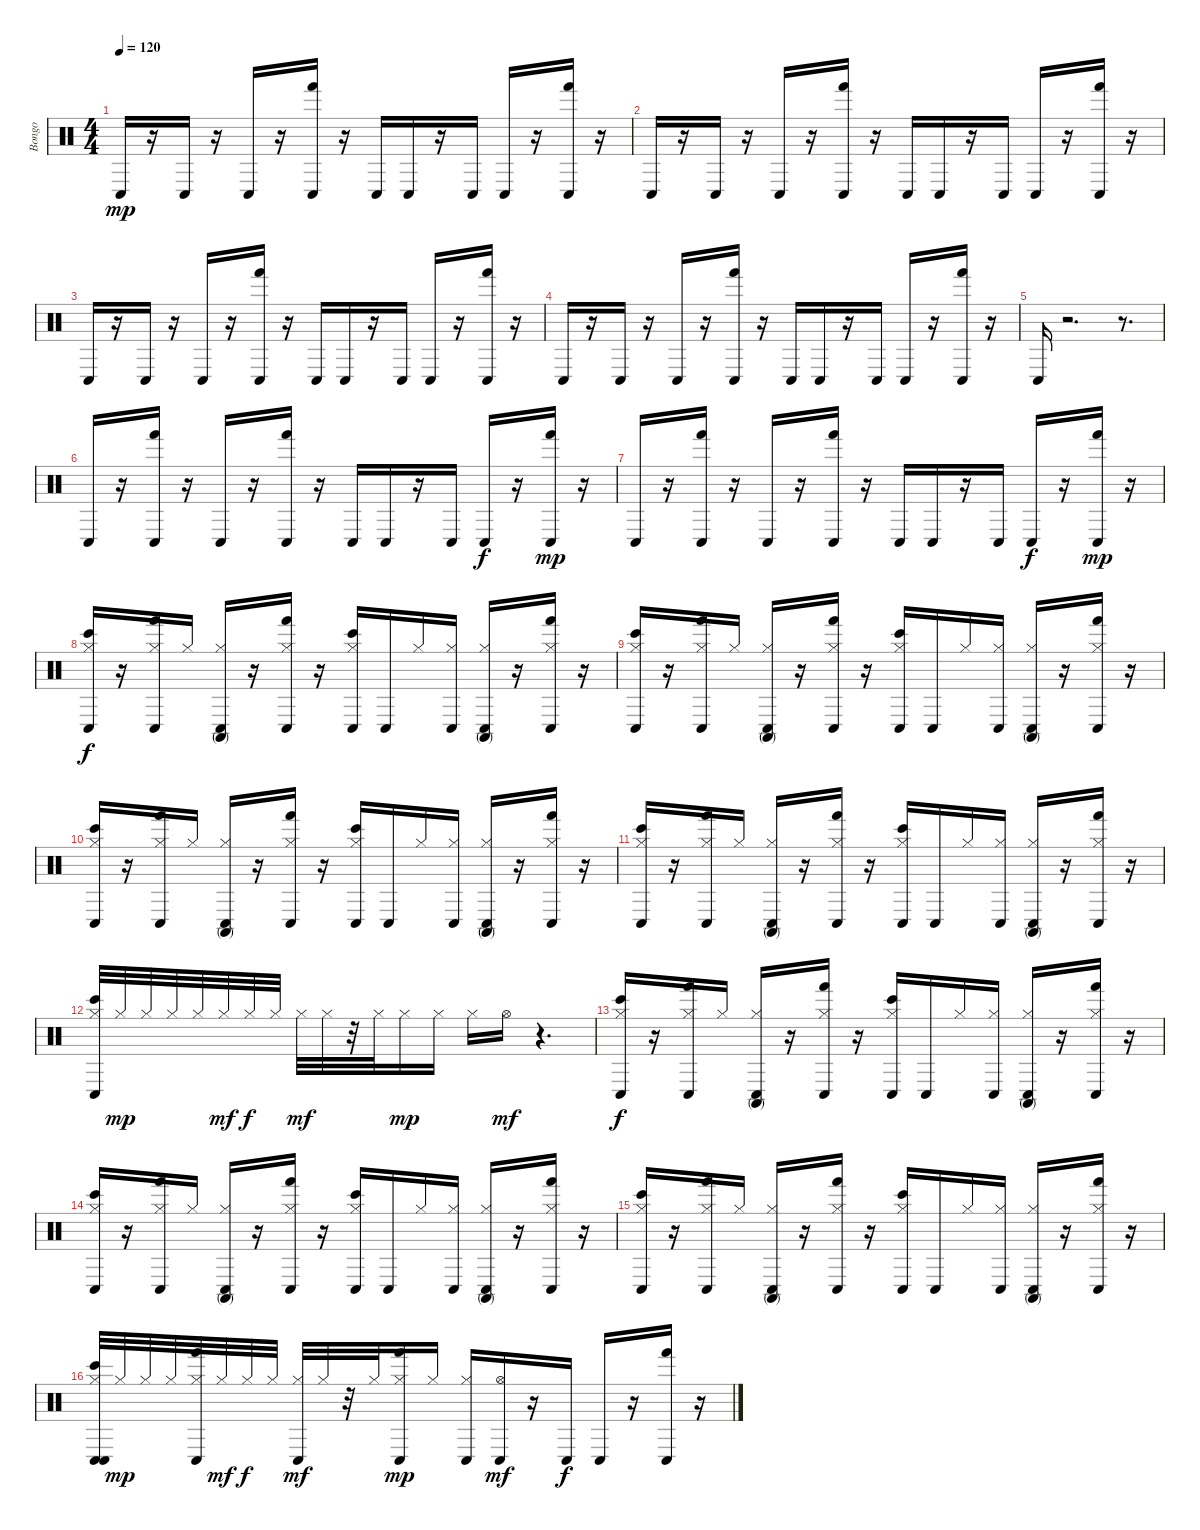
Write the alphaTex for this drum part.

\track ("Bongo" "Bongo") {instrument percussion}
\staff {score}
\articulation defaults
\ts (4 4)
\tempo 120
\clef neutral
\ks c "Conga low (hit)".16{dy mp}
r.16 "Conga low (hit)".16 r.16 "Conga low (hit)".16 r.16 ("Conga low (hit)" "Hand (hit)").16 r.16 "Conga low (hit)".16 "Conga low (hit)".16 r.16 "Conga low (hit)".16 "Conga low (hit)".16 r.16 ("Conga low (hit)" "Hand (hit)").16 r.16 |
"Conga low (hit)".16 r.16 "Conga low (hit)".16 r.16 "Conga low (hit)".16 r.16 ("Conga low (hit)" "Hand (hit)").16 r.16 "Conga low (hit)".16 "Conga low (hit)".16 r.16 "Conga low (hit)".16 "Conga low (hit)".16 r.16 ("Conga low (hit)" "Hand (hit)").16 r.16 |
"Conga low (hit)".16 r.16 "Conga low (hit)".16 r.16 "Conga low (hit)".16 r.16 ("Conga low (hit)" "Hand (hit)").16 r.16 "Conga low (hit)".16 "Conga low (hit)".16 r.16 "Conga low (hit)".16 "Conga low (hit)".16 r.16 ("Conga low (hit)" "Hand (hit)").16 r.16 |
"Conga low (hit)".16 r.16 "Conga low (hit)".16 r.16 "Conga low (hit)".16 r.16 ("Conga low (hit)" "Hand (hit)").16 r.16 "Conga low (hit)".16 "Conga low (hit)".16 r.16 "Conga low (hit)".16 "Conga low (hit)".16 r.16 ("Conga low (hit)" "Hand (hit)").16 r.16 |
"Conga low (hit)".16 r.2{d} r.8{d} |
"Conga low (hit)".16 r.16 ("Hand (hit)" "Conga low (hit)").16 r.16 "Conga low (hit)".16 r.16 ("Conga low (hit)" "Hand (hit)").16 r.16 "Conga low (hit)".16 "Conga low (hit)".16 r.16 "Conga low (hit)".16 "Conga low (hit)".16{dy f} r.16 ("Conga low (hit)" "Hand (hit)").16{dy mp} r.16 |
"Conga low (hit)".16 r.16 ("Hand (hit)" "Conga low (hit)").16 r.16 "Conga low (hit)".16 r.16 ("Conga low (hit)" "Hand (hit)").16 r.16 "Conga low (hit)".16 "Conga low (hit)".16 r.16 "Conga low (hit)".16 "Conga low (hit)".16{dy f} r.16 ("Conga low (hit)" "Hand (hit)").16{dy mp} r.16 |
("Hi-Hat (closed)" "Bongo High (hit)" "Conga low (hit)").16{dy f} r.16 ("Hi-Hat (closed)" "Hand (hit)" "Conga low (hit)").16 "Hi-Hat (closed)".16 ("Hi-Hat (closed)" "Conga high (mute)" "Conga low (hit)").16 r.16 ("Hi-Hat (closed)" "Hand (hit)" "Conga low (hit)").16 r.16 ("Hi-Hat (closed)" "Bongo High (hit)" "Conga low (hit)").16 "Conga low (hit)".16 "Hi-Hat (closed)".16 ("Hi-Hat (closed)" "Conga low (hit)").16 ("Hi-Hat (closed)" "Conga high (mute)" "Conga low (hit)").16 r.16 ("Hi-Hat (closed)" "Conga low (hit)" "Hand (hit)").16 r.16 |
("Hi-Hat (closed)" "Bongo High (hit)" "Conga low (hit)").16 r.16 ("Hi-Hat (closed)" "Hand (hit)" "Conga low (hit)").16 "Hi-Hat (closed)".16 ("Hi-Hat (closed)" "Conga high (mute)" "Conga low (hit)").16 r.16 ("Hi-Hat (closed)" "Hand (hit)" "Conga low (hit)").16 r.16 ("Hi-Hat (closed)" "Bongo High (hit)" "Conga low (hit)").16 "Conga low (hit)".16 "Hi-Hat (closed)".16 ("Hi-Hat (closed)" "Conga low (hit)").16 ("Hi-Hat (closed)" "Conga high (mute)" "Conga low (hit)").16 r.16 ("Hi-Hat (closed)" "Conga low (hit)" "Hand (hit)").16 r.16 |
("Hi-Hat (closed)" "Bongo High (hit)" "Conga low (hit)").16 r.16 ("Hi-Hat (closed)" "Hand (hit)" "Conga low (hit)").16 "Hi-Hat (closed)".16 ("Hi-Hat (closed)" "Conga high (mute)" "Conga low (hit)").16 r.16 ("Hi-Hat (closed)" "Hand (hit)" "Conga low (hit)").16 r.16 ("Hi-Hat (closed)" "Bongo High (hit)" "Conga low (hit)").16 "Conga low (hit)".16 "Hi-Hat (closed)".16 ("Hi-Hat (closed)" "Conga low (hit)").16 ("Hi-Hat (closed)" "Conga high (mute)" "Conga low (hit)").16 r.16 ("Hi-Hat (closed)" "Conga low (hit)" "Hand (hit)").16 r.16 |
("Hi-Hat (closed)" "Bongo High (hit)" "Conga low (hit)").16 r.16 ("Hi-Hat (closed)" "Hand (hit)" "Conga low (hit)").16 "Hi-Hat (closed)".16 ("Hi-Hat (closed)" "Conga high (mute)" "Conga low (hit)").16 r.16 ("Hi-Hat (closed)" "Hand (hit)" "Conga low (hit)").16 r.16 ("Hi-Hat (closed)" "Bongo High (hit)" "Conga low (hit)").16 "Conga low (hit)".16 "Hi-Hat (closed)".16 ("Hi-Hat (closed)" "Conga low (hit)").16 ("Hi-Hat (closed)" "Conga high (mute)" "Conga low (hit)").16 r.16 ("Hi-Hat (closed)" "Conga low (hit)" "Hand (hit)").16 r.16 |
("Hi-Hat (closed)" "Bongo High (hit)" "Conga low (hit)").32 "Hi-Hat (closed)".32{dy mp} "Hi-Hat (closed)".32 "Hi-Hat (closed)".32 "Hi-Hat (closed)".32 "Hi-Hat (closed)".32{dy mf} "Hi-Hat (closed)".32{dy f} "Hi-Hat (closed)".32 "Hi-Hat (closed)".32{dy mf} "Hi-Hat (closed)".32 r.32 "Hi-Hat (closed)".32 "Hi-Hat (closed)".16{dy mp} "Hi-Hat (closed)".16 "Hi-Hat (closed)".16 "Hi-Hat (open)".16{dy mf} r.4{d} |
("Hi-Hat (closed)" "Bongo High (hit)" "Conga low (hit)").16{dy f} r.16 ("Hi-Hat (closed)" "Hand (hit)" "Conga low (hit)").16 "Hi-Hat (closed)".16 ("Hi-Hat (closed)" "Conga high (mute)" "Conga low (hit)").16 r.16 ("Hi-Hat (closed)" "Hand (hit)" "Conga low (hit)").16 r.16 ("Hi-Hat (closed)" "Bongo High (hit)" "Conga low (hit)").16 "Conga low (hit)".16 "Hi-Hat (closed)".16 ("Hi-Hat (closed)" "Conga low (hit)").16 ("Hi-Hat (closed)" "Conga high (mute)" "Conga low (hit)").16 r.16 ("Hi-Hat (closed)" "Conga low (hit)" "Hand (hit)").16 r.16 |
("Hi-Hat (closed)" "Bongo High (hit)" "Conga low (hit)").16 r.16 ("Hi-Hat (closed)" "Hand (hit)" "Conga low (hit)").16 "Hi-Hat (closed)".16 ("Hi-Hat (closed)" "Conga high (mute)" "Conga low (hit)").16 r.16 ("Hi-Hat (closed)" "Hand (hit)" "Conga low (hit)").16 r.16 ("Hi-Hat (closed)" "Bongo High (hit)" "Conga low (hit)").16 "Conga low (hit)".16 "Hi-Hat (closed)".16 ("Hi-Hat (closed)" "Conga low (hit)").16 ("Hi-Hat (closed)" "Conga high (mute)" "Conga low (hit)").16 r.16 ("Hi-Hat (closed)" "Conga low (hit)" "Hand (hit)").16 r.16 |
("Hi-Hat (closed)" "Bongo High (hit)" "Conga low (hit)").16 r.16 ("Hi-Hat (closed)" "Hand (hit)" "Conga low (hit)").16 "Hi-Hat (closed)".16 ("Hi-Hat (closed)" "Conga high (mute)" "Conga low (hit)").16 r.16 ("Hi-Hat (closed)" "Hand (hit)" "Conga low (hit)").16 r.16 ("Hi-Hat (closed)" "Bongo High (hit)" "Conga low (hit)").16 "Conga low (hit)".16 "Hi-Hat (closed)".16 ("Hi-Hat (closed)" "Conga low (hit)").16 ("Hi-Hat (closed)" "Conga high (mute)" "Conga low (hit)").16 r.16 ("Hi-Hat (closed)" "Conga low (hit)" "Hand (hit)").16 r.16 |
("Conga low (hit)" "Hi-Hat (closed)" "Bongo High (hit)" "Conga low (hit)").32 "Hi-Hat (closed)".32{dy mp} "Hi-Hat (closed)".32 "Hi-Hat (closed)".32 ("Hand (hit)" "Conga low (hit)" "Hi-Hat (closed)").32 "Hi-Hat (closed)".32{dy mf} "Hi-Hat (closed)".32{dy f} "Hi-Hat (closed)".32 ("Conga low (hit)" "Hi-Hat (closed)").32{dy mf} "Hi-Hat (closed)".32 r.32 "Hi-Hat (closed)".32 ("Hand (hit)" "Conga low (hit)" "Hi-Hat (closed)").16{dy mp} "Hi-Hat (closed)".16 ("Conga low (hit)" "Hi-Hat (closed)").16 ("Conga low (hit)" "Hi-Hat (open)").16{dy mf} r.16 "Conga low (hit)".16{dy f} "Conga low (hit)".16 r.16 ("Conga low (hit)" "Hand (hit)").16 r.16
